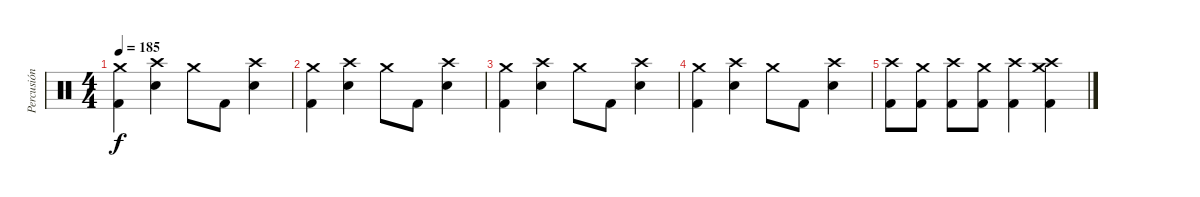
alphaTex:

\track ("Percusión" "Percusión") {instrument percussion}
\staff {score}
\articulation defaults
\ts (4 4)
\tempo 185
\clef neutral
\ks c
("Crash medium (hit)" "Kick (hit) 2").4{dy f} ("Crash high (hit)" "Electric Snare (hit)").4 "Crash medium (hit)".8 "Kick (hit) 2".8 ("Crash high (hit)" "Electric Snare (hit)").4 |
("Crash medium (hit)" "Kick (hit) 2").4 ("Crash high (hit)" "Electric Snare (hit)").4 "Crash medium (hit)".8 "Kick (hit) 2".8 ("Crash high (hit)" "Electric Snare (hit)").4 |
("Crash medium (hit)" "Kick (hit) 2").4 ("Crash high (hit)" "Electric Snare (hit)").4 "Crash medium (hit)".8 "Kick (hit) 2".8 ("Crash high (hit)" "Electric Snare (hit)").4 |
("Crash medium (hit)" "Kick (hit) 2").4 ("Crash high (hit)" "Electric Snare (hit)").4 "Crash medium (hit)".8 "Kick (hit) 2".8 ("Crash high (hit)" "Electric Snare (hit)").4 |
("Crash high (hit)" "Kick (hit) 2").8 ("Crash medium (hit)" "Kick (hit) 2").8 ("Crash high (hit)" "Kick (hit) 2").8 ("Crash medium (hit)" "Kick (hit) 2").8 ("Crash high (hit)" "Kick (hit) 2").4 ("Crash high (hit)" "Crash medium (hit)" "Kick (hit) 2").4
